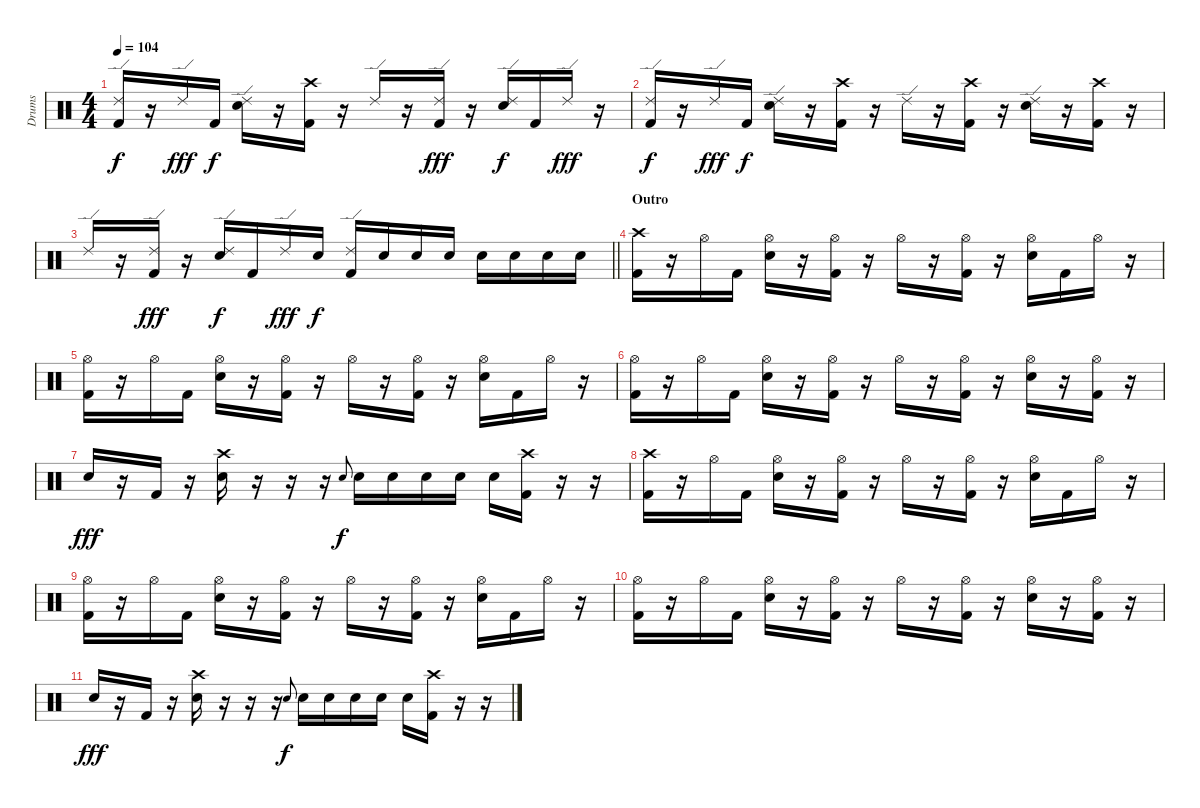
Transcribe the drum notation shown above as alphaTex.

\track ("Drums" "Drums") {instrument percussion}
\staff {score}
\articulation defaults
\ts (4 4)
\tempo 104
\clef neutral
\ks c
("Ride (edge) 2" "Kick (hit) 2").16{dy f} r.16 "Ride (edge) 2".16{dy fff} "Kick (hit) 2".16{dy f} ("Ride (edge) 2" "Snare (hit) 2").16 r.16 ("Crash high (hit)" "Kick (hit) 2").16 r.16 "Ride (edge) 2".16 r.16 ("Ride (edge) 2" "Kick (hit) 2").16{dy fff} r.16 ("Ride (edge) 2" "Snare (hit) 2").16{dy f} "Kick (hit) 2".16 "Ride (edge) 2".16{dy fff} r.16 |
("Ride (edge) 2" "Kick (hit) 2").16{dy f} r.16 "Ride (edge) 2".16{dy fff} "Kick (hit) 2".16{dy f} ("Ride (edge) 2" "Snare (hit) 2").16 r.16 ("Crash high (hit)" "Kick (hit) 2").16 r.16 "Ride (edge) 2".16 r.16 ("Crash high (hit)" "Kick (hit) 2").16 r.16 ("Ride (edge) 2" "Snare (hit) 2").16 r.16 ("Crash high (hit)" "Kick (hit) 2").16 r.16 |
\barLineRight lightlight "Ride (edge) 2".16
r.16 ("Ride (edge) 2" "Kick (hit) 2").16{dy fff} r.16 ("Ride (edge) 2" "Snare (hit) 2").16{dy f} "Kick (hit) 2".16 "Ride (edge) 2".16{dy fff} "Snare (hit) 2".16{dy f} ("Ride (edge) 2" "Kick (hit) 2").16 "Snare (hit) 2".16 "Snare (hit) 2".16 "Snare (hit) 2".16 "Snare (hit) 2".16 "Snare (hit) 2".16 "Snare (hit) 2".16 "Snare (hit) 2".16 |
\section ("" "Outro")
("Crash high (hit)" "Kick (hit) 2").16 r.16 "Hi-Hat (open)".16 "Kick (hit) 2".16 ("Hi-Hat (open)" "Snare (hit) 2").16 r.16 ("Hi-Hat (open)" "Kick (hit) 2").16 r.16 "Hi-Hat (open)".16 r.16 ("Hi-Hat (open)" "Kick (hit) 2").16 r.16 ("Hi-Hat (open)" "Snare (hit) 2").16 "Kick (hit) 2".16 "Hi-Hat (open)".16 r.16 |
("Hi-Hat (open)" "Kick (hit) 2").16 r.16 "Hi-Hat (open)".16 "Kick (hit) 2".16 ("Hi-Hat (open)" "Snare (hit) 2").16 r.16 ("Hi-Hat (open)" "Kick (hit) 2").16 r.16 "Hi-Hat (open)".16 r.16 ("Hi-Hat (open)" "Kick (hit) 2").16 r.16 ("Hi-Hat (open)" "Snare (hit) 2").16 "Kick (hit) 2".16 "Hi-Hat (open)".16 r.16 |
("Hi-Hat (open)" "Kick (hit) 2").16 r.16 "Hi-Hat (open)".16 "Kick (hit) 2".16 ("Hi-Hat (open)" "Snare (hit) 2").16 r.16 ("Hi-Hat (open)" "Kick (hit) 2").16 r.16 "Hi-Hat (open)".16 r.16 ("Hi-Hat (open)" "Kick (hit) 2").16 r.16 ("Hi-Hat (open)" "Snare (hit) 2").16 r.16 ("Hi-Hat (open)" "Kick (hit) 2").16 r.16 |
"Snare (hit) 2".16{dy fff} r.16 "Kick (hit) 2".16 r.16 ("Crash high (hit)" "Snare (hit) 2").16 r.16 r.16 r.16 "Snare (hit) 2".8{gr onbeat dy f} "Snare (hit) 2".16 "Snare (hit) 2".16 "Snare (hit) 2".16 "Snare (hit) 2".16 "Snare (hit) 2".16 ("Crash high (hit)" "Kick (hit) 2").16 r.16 r.16 |
("Crash high (hit)" "Kick (hit) 2").16 r.16 "Hi-Hat (open)".16 "Kick (hit) 2".16 ("Hi-Hat (open)" "Snare (hit) 2").16 r.16 ("Hi-Hat (open)" "Kick (hit) 2").16 r.16 "Hi-Hat (open)".16 r.16 ("Hi-Hat (open)" "Kick (hit) 2").16 r.16 ("Hi-Hat (open)" "Snare (hit) 2").16 "Kick (hit) 2".16 "Hi-Hat (open)".16 r.16 |
("Hi-Hat (open)" "Kick (hit) 2").16 r.16 "Hi-Hat (open)".16 "Kick (hit) 2".16 ("Hi-Hat (open)" "Snare (hit) 2").16 r.16 ("Hi-Hat (open)" "Kick (hit) 2").16 r.16 "Hi-Hat (open)".16 r.16 ("Hi-Hat (open)" "Kick (hit) 2").16 r.16 ("Hi-Hat (open)" "Snare (hit) 2").16 "Kick (hit) 2".16 "Hi-Hat (open)".16 r.16 |
("Hi-Hat (open)" "Kick (hit) 2").16 r.16 "Hi-Hat (open)".16 "Kick (hit) 2".16 ("Hi-Hat (open)" "Snare (hit) 2").16 r.16 ("Hi-Hat (open)" "Kick (hit) 2").16 r.16 "Hi-Hat (open)".16 r.16 ("Hi-Hat (open)" "Kick (hit) 2").16 r.16 ("Hi-Hat (open)" "Snare (hit) 2").16 r.16 ("Hi-Hat (open)" "Kick (hit) 2").16 r.16 |
"Snare (hit) 2".16{dy fff} r.16 "Kick (hit) 2".16 r.16 ("Crash high (hit)" "Snare (hit) 2").16 r.16 r.16 r.16 "Snare (hit) 2".8{gr onbeat dy f} "Snare (hit) 2".16 "Snare (hit) 2".16 "Snare (hit) 2".16 "Snare (hit) 2".16 "Snare (hit) 2".16 ("Crash high (hit)" "Kick (hit) 2").16 r.16 r.16
